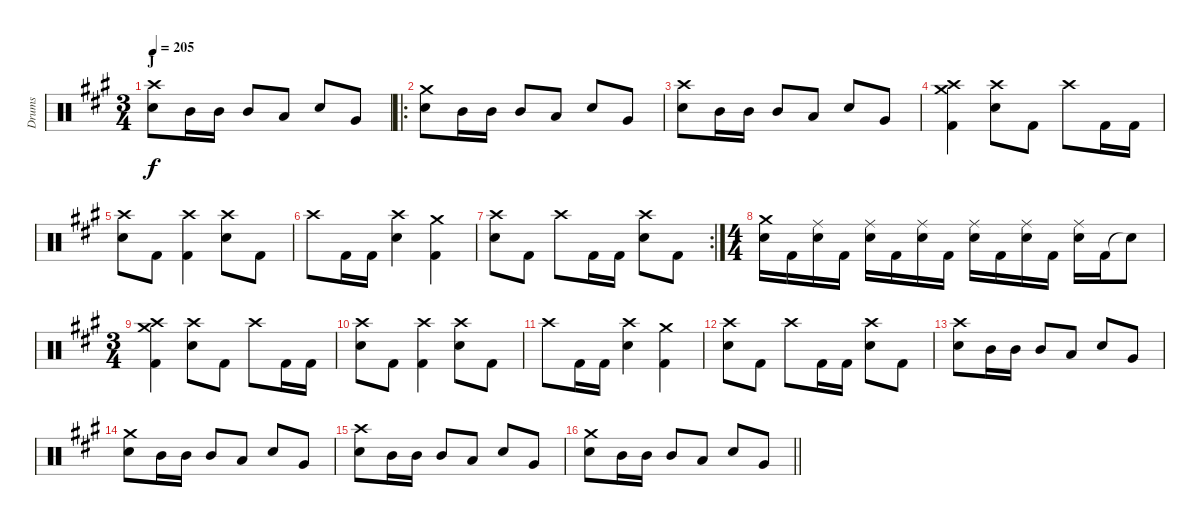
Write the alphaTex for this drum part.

\track ("Drums" "Drums") {instrument percussion}
\staff {score}
\articulation defaults
\ts (3 4)
\section ("" "J")
\tempo 205
\clef neutral
\ks f#minor
("Crash high (hit)" "Electric Snare (hit)").8{dy f} "Mid Tom (hit)".16 "Mid Tom (hit)".16 "Mid Tom (hit)".8 "Low Tom (hit)".8 "Electric Snare (hit)".8 "Very Low Tom (hit)".8 |
\ro
("Crash medium (hit)" "Electric Snare (hit)").8 "Mid Tom (hit)".16 "Mid Tom (hit)".16 "Mid Tom (hit)".8 "Low Tom (hit)".8 "Electric Snare (hit)".8 "Very Low Tom (hit)".8 |
("Crash high (hit)" "Electric Snare (hit)").8 "Mid Tom (hit)".16 "Mid Tom (hit)".16 "Mid Tom (hit)".8 "Low Tom (hit)".8 "Electric Snare (hit)".8 "Very Low Tom (hit)".8 |
("Crash medium (hit)" "Crash high (hit)" "Kick (hit) 2").4 ("Crash high (hit)" "Electric Snare (hit)").8 "Kick (hit) 2".8 "Crash high (hit)".8 "Kick (hit) 2".16 "Kick (hit) 2".16 |
("Crash high (hit)" "Electric Snare (hit)").8 "Kick (hit) 2".8 ("Crash high (hit)" "Kick (hit) 2").4 ("Crash high (hit)" "Electric Snare (hit)").8 "Kick (hit) 2".8 |
"Crash high (hit)".8 "Kick (hit) 2".16 "Kick (hit) 2".16 ("Crash high (hit)" "Electric Snare (hit)").4 ("Crash medium (hit)" "Kick (hit) 2").4 |
\rc 2
("Crash high (hit)" "Electric Snare (hit)").8 "Kick (hit) 2".8 "Crash high (hit)".8 "Kick (hit) 2".16 "Kick (hit) 2".16 ("Crash high (hit)" "Electric Snare (hit)").8 "Kick (hit) 2".8 |
\ts (4 4)
("Crash medium (hit)" "Electric Snare (hit)").16 "Kick (hit) 2".16 ("Ride (middle)" "Electric Snare (hit)").16 "Kick (hit) 2".16 ("Ride (middle)" "Electric Snare (hit)").16 "Kick (hit) 2".16 ("Ride (middle)" "Electric Snare (hit)").16 "Kick (hit) 2".16 ("Ride (middle)" "Electric Snare (hit)").16 "Kick (hit) 2".16 ("Ride (middle)" "Electric Snare (hit)").16 "Kick (hit) 2".16 ("Ride (middle)" "Electric Snare (hit)").16 "Kick (hit) 2".16 "Snare (hit)"{t}.8 |
\ts (3 4)
("Crash medium (hit)" "Crash high (hit)" "Kick (hit) 2").4 ("Crash high (hit)" "Electric Snare (hit)").8 "Kick (hit) 2".8 "Crash high (hit)".8 "Kick (hit) 2".16 "Kick (hit) 2".16 |
("Crash high (hit)" "Electric Snare (hit)").8 "Kick (hit) 2".8 ("Crash high (hit)" "Kick (hit) 2").4 ("Crash high (hit)" "Electric Snare (hit)").8 "Kick (hit) 2".8 |
"Crash high (hit)".8 "Kick (hit) 2".16 "Kick (hit) 2".16 ("Crash high (hit)" "Electric Snare (hit)").4 ("Crash medium (hit)" "Kick (hit) 2").4 |
("Crash high (hit)" "Electric Snare (hit)").8 "Kick (hit) 2".8 "Crash high (hit)".8 "Kick (hit) 2".16 "Kick (hit) 2".16 ("Crash high (hit)" "Electric Snare (hit)").8 "Kick (hit) 2".8 |
("Crash high (hit)" "Electric Snare (hit)").8 "Mid Tom (hit)".16 "Mid Tom (hit)".16 "Mid Tom (hit)".8 "Low Tom (hit)".8 "Electric Snare (hit)".8 "Very Low Tom (hit)".8 |
("Crash medium (hit)" "Electric Snare (hit)").8 "Mid Tom (hit)".16 "Mid Tom (hit)".16 "Mid Tom (hit)".8 "Low Tom (hit)".8 "Electric Snare (hit)".8 "Very Low Tom (hit)".8 |
("Crash high (hit)" "Electric Snare (hit)").8 "Mid Tom (hit)".16 "Mid Tom (hit)".16 "Mid Tom (hit)".8 "Low Tom (hit)".8 "Electric Snare (hit)".8 "Very Low Tom (hit)".8 |
\barLineRight lightlight
("Crash medium (hit)" "Electric Snare (hit)").8 "Mid Tom (hit)".16 "Mid Tom (hit)".16 "Mid Tom (hit)".8 "Low Tom (hit)".8 "Electric Snare (hit)".8 "Very Low Tom (hit)".8
